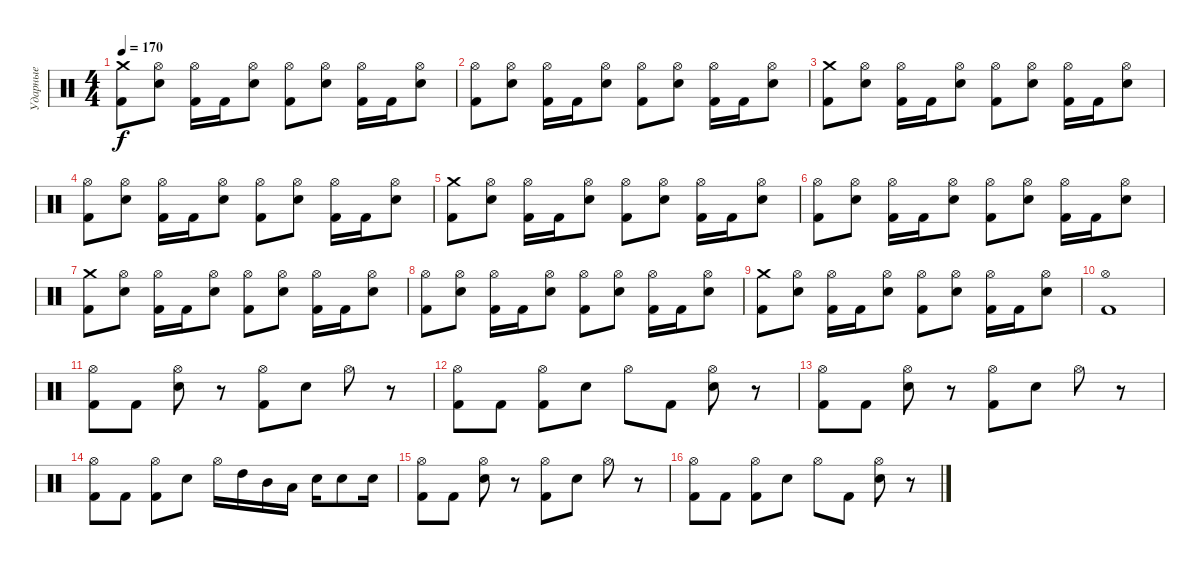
\track ("Ударные" "Ударные") {instrument percussion}
\staff {score}
\articulation defaults
\ts (4 4)
\tempo 170
\clef neutral
\ks c
("Crash medium (hit)" "Kick (hit) 2").8{dy f} ("Hi-Hat (open)" "Snare (hit) 2").8 ("Hi-Hat (open)" "Kick (hit) 2").16 "Kick (hit) 2".16 ("Hi-Hat (open)" "Snare (hit) 2").8 ("Hi-Hat (open)" "Kick (hit) 2").8 ("Hi-Hat (open)" "Snare (hit) 2").8 ("Hi-Hat (open)" "Kick (hit) 2").16 "Kick (hit) 2".16 ("Hi-Hat (open)" "Snare (hit) 2").8 |
("Hi-Hat (open)" "Kick (hit) 2").8 ("Hi-Hat (open)" "Snare (hit) 2").8 ("Hi-Hat (open)" "Kick (hit) 2").16 "Kick (hit) 2".16 ("Hi-Hat (open)" "Snare (hit) 2").8 ("Hi-Hat (open)" "Kick (hit) 2").8 ("Hi-Hat (open)" "Snare (hit) 2").8 ("Hi-Hat (open)" "Kick (hit) 2").16 "Kick (hit) 2".16 ("Hi-Hat (open)" "Snare (hit) 2").8 |
("Crash medium (hit)" "Kick (hit) 2").8 ("Hi-Hat (open)" "Snare (hit) 2").8 ("Hi-Hat (open)" "Kick (hit) 2").16 "Kick (hit) 2".16 ("Hi-Hat (open)" "Snare (hit) 2").8 ("Hi-Hat (open)" "Kick (hit) 2").8 ("Hi-Hat (open)" "Snare (hit) 2").8 ("Hi-Hat (open)" "Kick (hit) 2").16 "Kick (hit) 2".16 ("Hi-Hat (open)" "Snare (hit) 2").8 |
("Hi-Hat (open)" "Kick (hit) 2").8 ("Hi-Hat (open)" "Snare (hit) 2").8 ("Hi-Hat (open)" "Kick (hit) 2").16 "Kick (hit) 2".16 ("Hi-Hat (open)" "Snare (hit) 2").8 ("Hi-Hat (open)" "Kick (hit) 2").8 ("Hi-Hat (open)" "Snare (hit) 2").8 ("Hi-Hat (open)" "Kick (hit) 2").16 "Kick (hit) 2".16 ("Hi-Hat (open)" "Snare (hit) 2").8 |
("Crash medium (hit)" "Kick (hit) 2").8 ("Hi-Hat (open)" "Snare (hit) 2").8 ("Hi-Hat (open)" "Kick (hit) 2").16 "Kick (hit) 2".16 ("Hi-Hat (open)" "Snare (hit) 2").8 ("Hi-Hat (open)" "Kick (hit) 2").8 ("Hi-Hat (open)" "Snare (hit) 2").8 ("Hi-Hat (open)" "Kick (hit) 2").16 "Kick (hit) 2".16 ("Hi-Hat (open)" "Snare (hit) 2").8 |
("Hi-Hat (open)" "Kick (hit) 2").8 ("Hi-Hat (open)" "Snare (hit) 2").8 ("Hi-Hat (open)" "Kick (hit) 2").16 "Kick (hit) 2".16 ("Hi-Hat (open)" "Snare (hit) 2").8 ("Hi-Hat (open)" "Kick (hit) 2").8 ("Hi-Hat (open)" "Snare (hit) 2").8 ("Hi-Hat (open)" "Kick (hit) 2").16 "Kick (hit) 2".16 ("Hi-Hat (open)" "Snare (hit) 2").8 |
("Crash medium (hit)" "Kick (hit) 2").8 ("Hi-Hat (open)" "Snare (hit) 2").8 ("Hi-Hat (open)" "Kick (hit) 2").16 "Kick (hit) 2".16 ("Hi-Hat (open)" "Snare (hit) 2").8 ("Hi-Hat (open)" "Kick (hit) 2").8 ("Hi-Hat (open)" "Snare (hit) 2").8 ("Hi-Hat (open)" "Kick (hit) 2").16 "Kick (hit) 2".16 ("Hi-Hat (open)" "Snare (hit) 2").8 |
("Hi-Hat (open)" "Kick (hit) 2").8 ("Hi-Hat (open)" "Snare (hit) 2").8 ("Hi-Hat (open)" "Kick (hit) 2").16 "Kick (hit) 2".16 ("Hi-Hat (open)" "Snare (hit) 2").8 ("Hi-Hat (open)" "Kick (hit) 2").8 ("Hi-Hat (open)" "Snare (hit) 2").8 ("Hi-Hat (open)" "Kick (hit) 2").16 "Kick (hit) 2".16 ("Hi-Hat (open)" "Snare (hit) 2").8 |
("Crash medium (hit)" "Kick (hit) 2").8 ("Hi-Hat (open)" "Snare (hit) 2").8 ("Hi-Hat (open)" "Kick (hit) 2").16 "Kick (hit) 2".16 ("Hi-Hat (open)" "Snare (hit) 2").8 ("Hi-Hat (open)" "Kick (hit) 2").8 ("Hi-Hat (open)" "Snare (hit) 2").8 ("Hi-Hat (open)" "Kick (hit) 2").16 "Kick (hit) 2".16 ("Hi-Hat (open)" "Snare (hit) 2").8 |
("Hi-Hat (open)" "Kick (hit) 2").1 |
("Hi-Hat (open)" "Kick (hit) 2").8 "Kick (hit) 2".8 ("Hi-Hat (open)" "Snare (hit) 2").8 r.8 ("Hi-Hat (open)" "Kick (hit) 2").8 "Snare (hit) 2".8 "Hi-Hat (open)".8 r.8 |
("Hi-Hat (open)" "Kick (hit) 2").8 "Kick (hit) 2".8 ("Hi-Hat (open)" "Kick (hit) 2").8 "Snare (hit) 2".8 "Hi-Hat (open)".8 "Kick (hit) 2".8 ("Hi-Hat (open)" "Snare (hit) 2").8 r.8 |
("Hi-Hat (open)" "Kick (hit) 2").8 "Kick (hit) 2".8 ("Hi-Hat (open)" "Snare (hit) 2").8 r.8 ("Hi-Hat (open)" "Kick (hit) 2").8 "Snare (hit) 2".8 "Hi-Hat (open)".8 r.8 |
("Hi-Hat (open)" "Kick (hit) 2").8 "Kick (hit) 2".8 ("Hi-Hat (open)" "Kick (hit) 2").8 "Snare (hit) 2".8 "Hi-Hat (open)".16 "High Tom (hit)".16 "Mid Tom (hit)".16 "Low Tom (hit)".16 "Snare (hit) 2".16 "Snare (hit) 2".8 "Snare (hit) 2".16 |
("Hi-Hat (open)" "Kick (hit) 2").8 "Kick (hit) 2".8 ("Hi-Hat (open)" "Snare (hit) 2").8 r.8 ("Hi-Hat (open)" "Kick (hit) 2").8 "Snare (hit) 2".8 "Hi-Hat (open)".8 r.8 |
("Hi-Hat (open)" "Kick (hit) 2").8 "Kick (hit) 2".8 ("Hi-Hat (open)" "Kick (hit) 2").8 "Snare (hit) 2".8 "Hi-Hat (open)".8 "Kick (hit) 2".8 ("Hi-Hat (open)" "Snare (hit) 2").8 r.8
